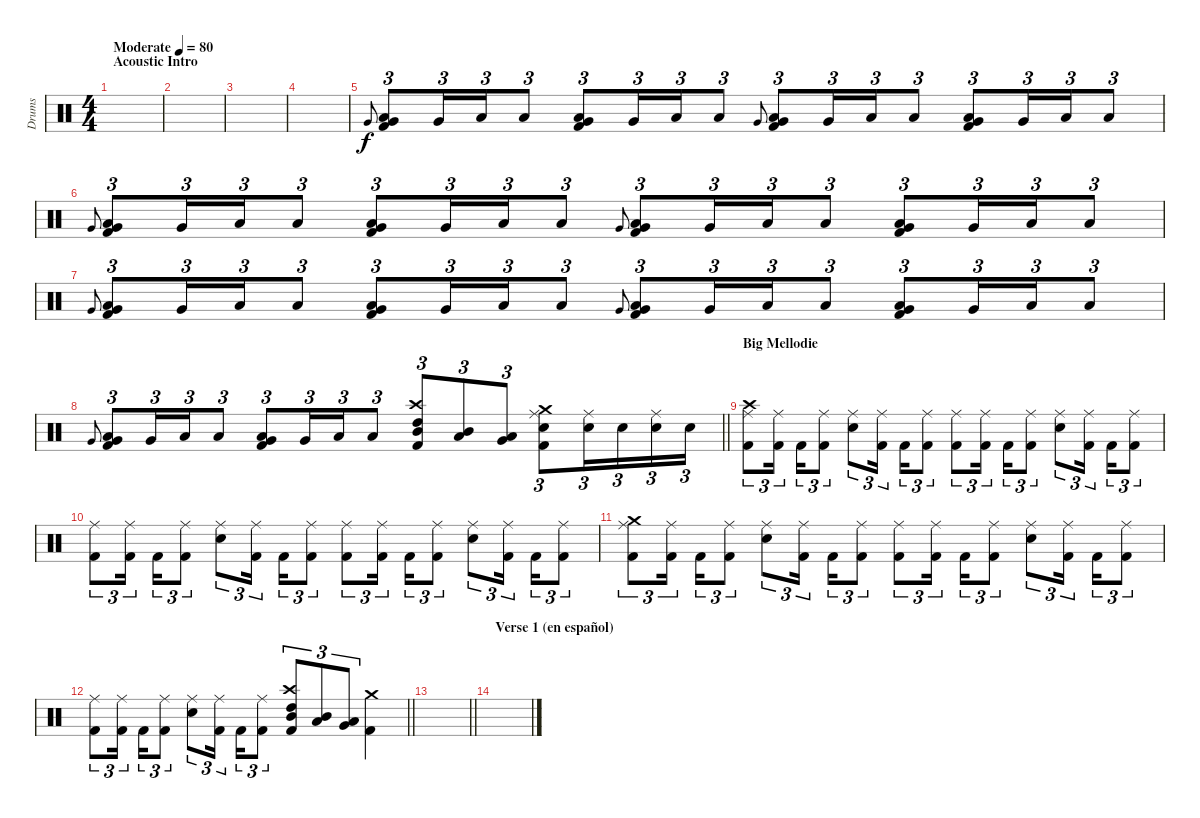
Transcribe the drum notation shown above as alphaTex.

\track ("Drums" "Drums") {instrument percussion}
\staff {score}
\articulation defaults
\ts (4 4)
\section ("" "Acoustic Intro")
\tempo (80 "Moderate")
\clef neutral
\ks c
|
|
|
|
"Very Low Tom (hit)".8{gr onbeat} ("Very Low Tom (hit)" "Low Floor Tom (hit)" "Kick (hit) 2").8{tu (3 2)} "Very Low Tom (hit)".16{tu (3 2)} "Low Floor Tom (hit)".16{tu (3 2)} "Low Floor Tom (hit)".8{tu (3 2)} ("Very Low Tom (hit)" "Low Tom (hit)" "Kick (hit) 2").8{tu (3 2)} "Very Low Tom (hit)".16{tu (3 2)} "Low Floor Tom (hit)".16{tu (3 2)} "Low Floor Tom (hit)".8{tu (3 2)} "Very Low Tom (hit)".8{gr onbeat} ("Very Low Tom (hit)" "Low Floor Tom (hit)" "Kick (hit) 2").8{tu (3 2)} "Very Low Tom (hit)".16{tu (3 2)} "Low Floor Tom (hit)".16{tu (3 2)} "Low Floor Tom (hit)".8{tu (3 2)} ("Very Low Tom (hit)" "Low Tom (hit)" "Kick (hit) 2").8{tu (3 2)} "Very Low Tom (hit)".16{tu (3 2)} "Low Floor Tom (hit)".16{tu (3 2)} "Low Floor Tom (hit)".8{tu (3 2)} |
"Very Low Tom (hit)".8{gr onbeat} ("Very Low Tom (hit)" "Low Floor Tom (hit)" "Kick (hit) 2").8{tu (3 2)} "Very Low Tom (hit)".16{tu (3 2)} "Low Floor Tom (hit)".16{tu (3 2)} "Low Floor Tom (hit)".8{tu (3 2)} ("Very Low Tom (hit)" "Low Tom (hit)" "Kick (hit) 2").8{tu (3 2)} "Very Low Tom (hit)".16{tu (3 2)} "Low Floor Tom (hit)".16{tu (3 2)} "Low Floor Tom (hit)".8{tu (3 2)} "Very Low Tom (hit)".8{gr onbeat} ("Very Low Tom (hit)" "Low Floor Tom (hit)" "Kick (hit) 2").8{tu (3 2)} "Very Low Tom (hit)".16{tu (3 2)} "Low Floor Tom (hit)".16{tu (3 2)} "Low Floor Tom (hit)".8{tu (3 2)} ("Very Low Tom (hit)" "Low Tom (hit)" "Kick (hit) 2").8{tu (3 2)} "Very Low Tom (hit)".16{tu (3 2)} "Low Floor Tom (hit)".16{tu (3 2)} "Low Floor Tom (hit)".8{tu (3 2)} |
"Very Low Tom (hit)".8{gr onbeat} ("Very Low Tom (hit)" "Low Floor Tom (hit)" "Kick (hit) 2").8{tu (3 2)} "Very Low Tom (hit)".16{tu (3 2)} "Low Floor Tom (hit)".16{tu (3 2)} "Low Floor Tom (hit)".8{tu (3 2)} ("Very Low Tom (hit)" "Low Tom (hit)" "Kick (hit) 2").8{tu (3 2)} "Very Low Tom (hit)".16{tu (3 2)} "Low Floor Tom (hit)".16{tu (3 2)} "Low Floor Tom (hit)".8{tu (3 2)} "Very Low Tom (hit)".8{gr onbeat} ("Very Low Tom (hit)" "Low Floor Tom (hit)" "Kick (hit) 2").8{tu (3 2)} "Very Low Tom (hit)".16{tu (3 2)} "Low Floor Tom (hit)".16{tu (3 2)} "Low Floor Tom (hit)".8{tu (3 2)} ("Very Low Tom (hit)" "Low Tom (hit)" "Kick (hit) 2").8{tu (3 2)} "Very Low Tom (hit)".16{tu (3 2)} "Low Floor Tom (hit)".16{tu (3 2)} "Low Floor Tom (hit)".8{tu (3 2)} |
\barLineRight lightlight "Very Low Tom (hit)".8{gr onbeat}
("Very Low Tom (hit)" "Low Floor Tom (hit)" "Kick (hit) 2").8{tu (3 2)} "Very Low Tom (hit)".16{tu (3 2)} "Low Floor Tom (hit)".16{tu (3 2)} "Low Floor Tom (hit)".8{tu (3 2)} ("Very Low Tom (hit)" "Low Tom (hit)" "Kick (hit) 2").8{tu (3 2)} "Very Low Tom (hit)".16{tu (3 2)} "Low Floor Tom (hit)".16{tu (3 2)} "Low Floor Tom (hit)".8{tu (3 2)} ("Crash high (hit)" "High Tom (hit)" "Mid Tom (hit)" "Kick (hit) 2").8{tu (3 2)} ("Mid Tom (hit)" "Low Tom (hit)").8{tu (3 2)} ("Low Tom (hit)" "Very Low Tom (hit)").8{tu (3 2)} ("Crash medium (hit)" "Ride (middle)" "Snare (hit) 2" "Kick (hit) 2").8{tu (3 2)} ("Ride (middle)" "Snare (hit) 2").16{tu (3 2)} "Snare (hit) 2".16{tu (3 2)} ("Ride (middle)" "Snare (hit) 2").16{tu (3 2)} "Snare (hit) 2".16{tu (3 2)} |
\section ("" "Big Mellodie")
("Crash high (hit)" "Ride (middle)" "Kick (hit) 2").8{tu (3 2)} ("Ride (middle)" "Kick (hit) 2").16{tu (3 2)} "Kick (hit) 2".16{tu (3 2)} ("Ride (middle)" "Kick (hit) 2").8{tu (3 2)} ("Ride (middle)" "Snare (hit) 2").8{tu (3 2)} ("Ride (middle)" "Kick (hit) 2").16{tu (3 2)} "Kick (hit) 2".16{tu (3 2)} ("Ride (middle)" "Kick (hit) 2").8{tu (3 2)} ("Ride (middle)" "Kick (hit) 2").8{tu (3 2)} ("Ride (middle)" "Kick (hit) 2").16{tu (3 2)} "Kick (hit) 2".16{tu (3 2)} ("Ride (middle)" "Kick (hit) 2").8{tu (3 2)} ("Ride (middle)" "Snare (hit) 2").8{tu (3 2)} ("Ride (middle)" "Kick (hit) 2").16{tu (3 2)} "Kick (hit) 2".16{tu (3 2)} ("Ride (middle)" "Kick (hit) 2").8{tu (3 2)} |
("Ride (middle)" "Kick (hit) 2").8{tu (3 2)} ("Ride (middle)" "Kick (hit) 2").16{tu (3 2)} "Kick (hit) 2".16{tu (3 2)} ("Ride (middle)" "Kick (hit) 2").8{tu (3 2)} ("Ride (middle)" "Snare (hit) 2").8{tu (3 2)} ("Ride (middle)" "Kick (hit) 2").16{tu (3 2)} "Kick (hit) 2".16{tu (3 2)} ("Ride (middle)" "Kick (hit) 2").8{tu (3 2)} ("Ride (middle)" "Kick (hit) 2").8{tu (3 2)} ("Ride (middle)" "Kick (hit) 2").16{tu (3 2)} "Kick (hit) 2".16{tu (3 2)} ("Ride (middle)" "Kick (hit) 2").8{tu (3 2)} ("Ride (middle)" "Snare (hit) 2").8{tu (3 2)} ("Ride (middle)" "Kick (hit) 2").16{tu (3 2)} "Kick (hit) 2".16{tu (3 2)} ("Ride (middle)" "Kick (hit) 2").8{tu (3 2)} |
("Crash medium (hit)" "Ride (middle)" "Kick (hit) 2").8{tu (3 2)} ("Ride (middle)" "Kick (hit) 2").16{tu (3 2)} "Kick (hit) 2".16{tu (3 2)} ("Ride (middle)" "Kick (hit) 2").8{tu (3 2)} ("Ride (middle)" "Snare (hit) 2").8{tu (3 2)} ("Ride (middle)" "Kick (hit) 2").16{tu (3 2)} "Kick (hit) 2".16{tu (3 2)} ("Ride (middle)" "Kick (hit) 2").8{tu (3 2)} ("Ride (middle)" "Kick (hit) 2").8{tu (3 2)} ("Ride (middle)" "Kick (hit) 2").16{tu (3 2)} "Kick (hit) 2".16{tu (3 2)} ("Ride (middle)" "Kick (hit) 2").8{tu (3 2)} ("Ride (middle)" "Snare (hit) 2").8{tu (3 2)} ("Ride (middle)" "Kick (hit) 2").16{tu (3 2)} "Kick (hit) 2".16{tu (3 2)} ("Ride (middle)" "Kick (hit) 2").8{tu (3 2)} |
\barLineRight lightlight
("Ride (middle)" "Kick (hit) 2").8{tu (3 2)} ("Ride (middle)" "Kick (hit) 2").16{tu (3 2)} "Kick (hit) 2".16{tu (3 2)} ("Ride (middle)" "Kick (hit) 2").8{tu (3 2)} ("Ride (middle)" "Snare (hit) 2").8{tu (3 2)} ("Ride (middle)" "Kick (hit) 2").16{tu (3 2)} "Kick (hit) 2".16{tu (3 2)} ("Ride (middle)" "Kick (hit) 2").8{tu (3 2)} ("Crash high (hit)" "High Tom (hit)" "Mid Tom (hit)" "Kick (hit) 2").8{tu (3 2)} ("Mid Tom (hit)" "Low Tom (hit)").8{tu (3 2)} ("Low Tom (hit)" "Very Low Tom (hit)").8{tu (3 2)} ("Crash medium (hit)" "Kick (hit) 2").4 |
\barLineRight lightlight
|
\section ("" "Verse 1 (en español)")
